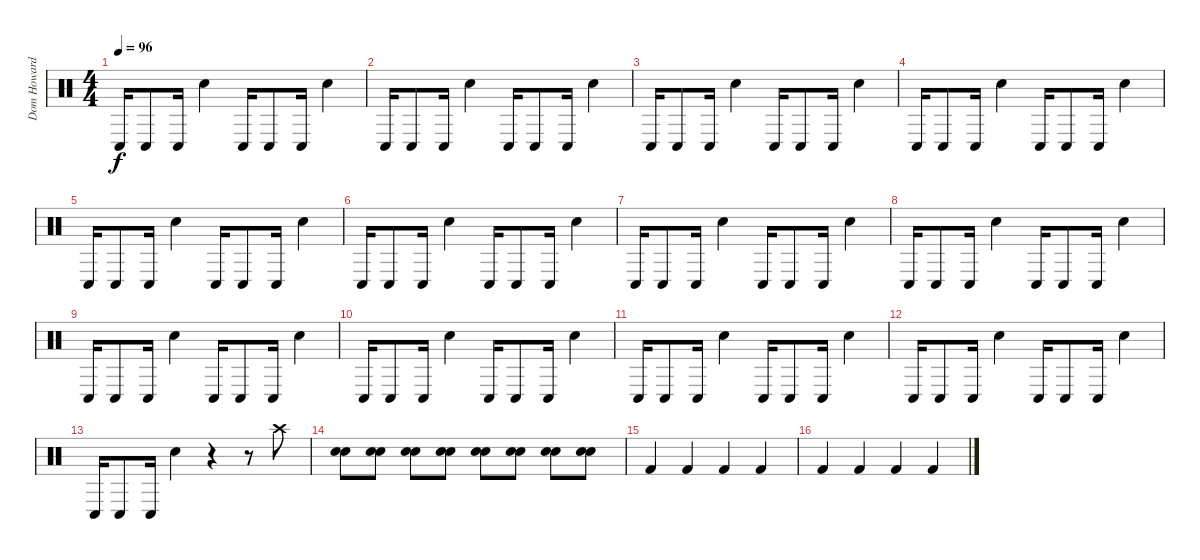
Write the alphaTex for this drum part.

\track ("Dom Howard" "Dom Howard") {instrument percussion}
\staff {score}
\articulation defaults
\ts (4 4)
\tempo 96
\clef neutral
\ks c "Conga low (hit)".16{dy f} "Conga low (hit)".8 "Conga low (hit)".16 "Metronome (bell)".4 "Conga low (hit)".16 "Conga low (hit)".8 "Conga low (hit)".16 "Metronome (bell)".4
|
"Conga low (hit)".16 "Conga low (hit)".8 "Conga low (hit)".16 "Metronome (bell)".4 "Conga low (hit)".16 "Conga low (hit)".8 "Conga low (hit)".16 "Metronome (bell)".4 |
"Conga low (hit)".16 "Conga low (hit)".8 "Conga low (hit)".16 "Metronome (bell)".4 "Conga low (hit)".16 "Conga low (hit)".8 "Conga low (hit)".16 "Metronome (bell)".4 |
"Conga low (hit)".16 "Conga low (hit)".8 "Conga low (hit)".16 "Metronome (bell)".4 "Conga low (hit)".16 "Conga low (hit)".8 "Conga low (hit)".16 "Metronome (bell)".4 |
"Conga low (hit)".16 "Conga low (hit)".8 "Conga low (hit)".16 "Metronome (bell)".4 "Conga low (hit)".16 "Conga low (hit)".8 "Conga low (hit)".16 "Metronome (bell)".4 |
"Conga low (hit)".16 "Conga low (hit)".8 "Conga low (hit)".16 "Metronome (bell)".4 "Conga low (hit)".16 "Conga low (hit)".8 "Conga low (hit)".16 "Metronome (bell)".4 |
"Conga low (hit)".16 "Conga low (hit)".8 "Conga low (hit)".16 "Metronome (bell)".4 "Conga low (hit)".16 "Conga low (hit)".8 "Conga low (hit)".16 "Metronome (bell)".4 |
"Conga low (hit)".16 "Conga low (hit)".8 "Conga low (hit)".16 "Metronome (bell)".4 "Conga low (hit)".16 "Conga low (hit)".8 "Conga low (hit)".16 "Metronome (bell)".4 |
"Conga low (hit)".16 "Conga low (hit)".8 "Conga low (hit)".16 "Metronome (bell)".4 "Conga low (hit)".16 "Conga low (hit)".8 "Conga low (hit)".16 "Metronome (bell)".4 |
"Conga low (hit)".16 "Conga low (hit)".8 "Conga low (hit)".16 "Metronome (bell)".4 "Conga low (hit)".16 "Conga low (hit)".8 "Conga low (hit)".16 "Metronome (bell)".4 |
"Conga low (hit)".16 "Conga low (hit)".8 "Conga low (hit)".16 "Metronome (bell)".4 "Conga low (hit)".16 "Conga low (hit)".8 "Conga low (hit)".16 "Metronome (bell)".4 |
"Conga low (hit)".16 "Conga low (hit)".8 "Conga low (hit)".16 "Metronome (bell)".4 "Conga low (hit)".16 "Conga low (hit)".8 "Conga low (hit)".16 "Metronome (bell)".4 |
"Conga low (hit)".16 "Conga low (hit)".8 "Conga low (hit)".16 "Metronome (bell)".4 r.4 r.8 "Crash high (hit)".8{volume 16} |
("Snare (hit) 2" "Electric Snare (hit)").8 ("Snare (hit) 2" "Electric Snare (hit)").8 ("Snare (hit) 2" "Electric Snare (hit)").8 ("Snare (hit) 2" "Electric Snare (hit)").8 ("Snare (hit) 2" "Electric Snare (hit)").8 ("Snare (hit) 2" "Electric Snare (hit)").8 ("Snare (hit) 2" "Electric Snare (hit)").8 ("Snare (hit) 2" "Electric Snare (hit)").8 |
"Kick (hit) 2".4 "Kick (hit) 2".4 "Kick (hit) 2".4 "Kick (hit) 2".4 |
"Kick (hit) 2".4 "Kick (hit) 2".4 "Kick (hit) 2".4 "Kick (hit) 2".4
